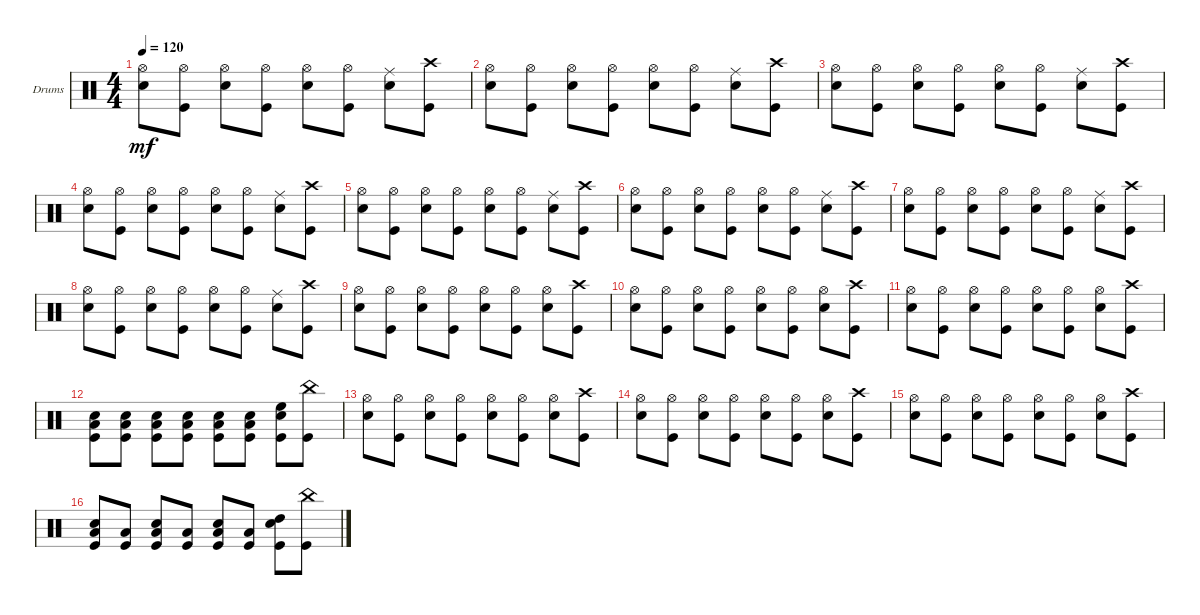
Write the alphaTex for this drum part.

\defaultSystemsLayout 4
\bracketExtendMode groupsimilarinstruments
\firstSystemTrackNameOrientation horizontal
\otherSystemsTrackNameOrientation horizontal
\track ("Drumkit" "Drums") {instrument percussion}
\staff {score}
\articulation defaults
\ts (4 4)
\tempo 120
\clef neutral
\scale
0.474178
\ks c
("Snare (hit) 2" "Hi-Hat (open)").8{dy mf} ("Hi-Hat (open)" "Kick (hit)").8 ("Snare (hit) 2" "Hi-Hat (open)").8 ("Hi-Hat (open)" "Kick (hit)").8 ("Snare (hit) 2" "Hi-Hat (open)").8 ("Hi-Hat (open)" "Kick (hit)").8 ("Snare (hit) 2" "Ride (middle)").8 ("Kick (hit)" "Crash high (hit)").8 |
\scale
0.262911 ("Snare (hit) 2" "Hi-Hat (open)").8 ("Hi-Hat (open)" "Kick (hit)").8 ("Snare (hit) 2" "Hi-Hat (open)").8 ("Hi-Hat (open)" "Kick (hit)").8 ("Snare (hit) 2" "Hi-Hat (open)").8 ("Hi-Hat (open)" "Kick (hit)").8 ("Snare (hit) 2" "Ride (middle)").8 ("Kick (hit)" "Crash high (hit)").8 |
\scale
0.262911 ("Snare (hit) 2" "Hi-Hat (open)").8 ("Hi-Hat (open)" "Kick (hit)").8 ("Snare (hit) 2" "Hi-Hat (open)").8 ("Hi-Hat (open)" "Kick (hit)").8 ("Snare (hit) 2" "Hi-Hat (open)").8 ("Hi-Hat (open)" "Kick (hit)").8 ("Snare (hit) 2" "Ride (middle)").8 ("Kick (hit)" "Crash high (hit)").8 |
("Snare (hit) 2" "Hi-Hat (open)").8 ("Hi-Hat (open)" "Kick (hit)").8 ("Snare (hit) 2" "Hi-Hat (open)").8 ("Hi-Hat (open)" "Kick (hit)").8 ("Snare (hit) 2" "Hi-Hat (open)").8 ("Hi-Hat (open)" "Kick (hit)").8 ("Snare (hit) 2" "Ride (middle)").8 ("Kick (hit)" "Crash high (hit)").8 |
("Snare (hit) 2" "Hi-Hat (open)").8 ("Hi-Hat (open)" "Kick (hit)").8 ("Snare (hit) 2" "Hi-Hat (open)").8 ("Hi-Hat (open)" "Kick (hit)").8 ("Snare (hit) 2" "Hi-Hat (open)").8 ("Hi-Hat (open)" "Kick (hit)").8 ("Snare (hit) 2" "Ride (middle)").8 ("Kick (hit)" "Crash high (hit)").8 |
("Snare (hit) 2" "Hi-Hat (open)").8 ("Hi-Hat (open)" "Kick (hit)").8 ("Snare (hit) 2" "Hi-Hat (open)").8 ("Hi-Hat (open)" "Kick (hit)").8 ("Snare (hit) 2" "Hi-Hat (open)").8 ("Hi-Hat (open)" "Kick (hit)").8 ("Snare (hit) 2" "Ride (middle)").8 ("Kick (hit)" "Crash high (hit)").8 |
("Snare (hit) 2" "Hi-Hat (open)").8 ("Hi-Hat (open)" "Kick (hit)").8 ("Snare (hit) 2" "Hi-Hat (open)").8 ("Hi-Hat (open)" "Kick (hit)").8 ("Snare (hit) 2" "Hi-Hat (open)").8 ("Hi-Hat (open)" "Kick (hit)").8 ("Snare (hit) 2" "Ride (middle)").8 ("Kick (hit)" "Crash high (hit)").8 |
("Snare (hit) 2" "Hi-Hat (open)").8 ("Hi-Hat (open)" "Kick (hit)").8 ("Snare (hit) 2" "Hi-Hat (open)").8 ("Hi-Hat (open)" "Kick (hit)").8 ("Snare (hit) 2" "Hi-Hat (open)").8 ("Hi-Hat (open)" "Kick (hit)").8 ("Snare (hit) 2" "Ride (middle)").8 ("Kick (hit)" "Crash high (hit)").8 |
("Snare (hit) 2" "Hi-Hat (open)").8 ("Hi-Hat (open)" "Kick (hit)").8 ("Snare (hit) 2" "Hi-Hat (open)").8 ("Hi-Hat (open)" "Kick (hit)").8 ("Snare (hit) 2" "Hi-Hat (open)").8 ("Hi-Hat (open)" "Kick (hit)").8 ("Snare (hit) 2" "Hi-Hat (open)").8 ("Kick (hit)" "Crash high (hit)").8 |
("Snare (hit) 2" "Hi-Hat (open)").8 ("Hi-Hat (open)" "Kick (hit)").8 ("Snare (hit) 2" "Hi-Hat (open)").8 ("Hi-Hat (open)" "Kick (hit)").8 ("Snare (hit) 2" "Hi-Hat (open)").8 ("Hi-Hat (open)" "Kick (hit)").8 ("Snare (hit) 2" "Hi-Hat (open)").8 ("Kick (hit)" "Crash high (hit)").8 |
("Snare (hit) 2" "Hi-Hat (open)").8 ("Hi-Hat (open)" "Kick (hit)").8 ("Snare (hit) 2" "Hi-Hat (open)").8 ("Hi-Hat (open)" "Kick (hit)").8 ("Snare (hit) 2" "Hi-Hat (open)").8 ("Hi-Hat (open)" "Kick (hit)").8 ("Snare (hit) 2" "Hi-Hat (open)").8 ("Kick (hit)" "Crash high (hit)").8 |
("Snare (hit) 2" "Low Tom (hit)" "Kick (hit)").8 ("Kick (hit)" "Low Tom (hit)" "Snare (hit) 2").8 ("Snare (hit) 2" "Low Tom (hit)" "Kick (hit)").8 ("Kick (hit)" "Low Tom (hit)" "Snare (hit) 2").8 ("Snare (hit) 2" "Low Tom (hit)" "Kick (hit)").8 ("Kick (hit)" "Low Tom (hit)" "Snare (hit) 2").8 ("Snare (hit) 2" "Kick (hit)" "High Floor Tom (hit)").8 ("Kick (hit)" "China (hit)").8 |
("Snare (hit) 2" "Hi-Hat (open)").8 ("Hi-Hat (open)" "Kick (hit)").8 ("Snare (hit) 2" "Hi-Hat (open)").8 ("Hi-Hat (open)" "Kick (hit)").8 ("Snare (hit) 2" "Hi-Hat (open)").8 ("Hi-Hat (open)" "Kick (hit)").8 ("Snare (hit) 2" "Hi-Hat (open)").8 ("Kick (hit)" "Crash high (hit)").8 |
("Snare (hit) 2" "Hi-Hat (open)").8 ("Hi-Hat (open)" "Kick (hit)").8 ("Snare (hit) 2" "Hi-Hat (open)").8 ("Hi-Hat (open)" "Kick (hit)").8 ("Snare (hit) 2" "Hi-Hat (open)").8 ("Hi-Hat (open)" "Kick (hit)").8 ("Snare (hit) 2" "Hi-Hat (open)").8 ("Kick (hit)" "Crash high (hit)").8 |
("Snare (hit) 2" "Hi-Hat (open)").8 ("Hi-Hat (open)" "Kick (hit)").8 ("Snare (hit) 2" "Hi-Hat (open)").8 ("Hi-Hat (open)" "Kick (hit)").8 ("Snare (hit) 2" "Hi-Hat (open)").8 ("Hi-Hat (open)" "Kick (hit)").8 ("Snare (hit) 2" "Hi-Hat (open)").8 ("Kick (hit)" "Crash high (hit)").8 |
("Snare (hit) 2" "Low Tom (hit)" "Kick (hit)").8 ("Kick (hit)" "Low Tom (hit)").8 ("Snare (hit) 2" "Low Tom (hit)" "Kick (hit)").8 ("Kick (hit)" "Low Tom (hit)").8 ("Snare (hit) 2" "Low Tom (hit)" "Kick (hit)").8 ("Kick (hit)" "Low Tom (hit)").8 ("Snare (hit) 2" "Kick (hit)" "High Tom (hit)").8 ("Kick (hit)" "China (hit)").8
